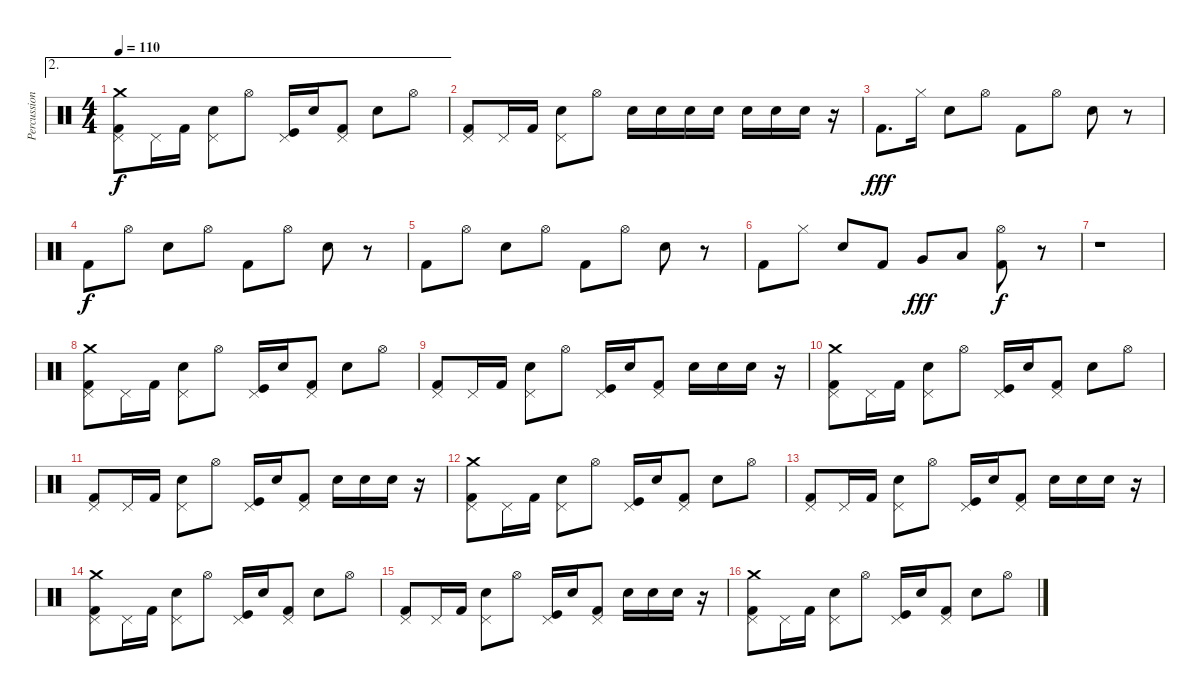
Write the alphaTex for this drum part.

\track ("Percussions" "Percussion") {instrument percussion}
\staff {score}
\articulation defaults
\ae 2
\ts (4 4)
\tempo 110
\clef neutral
\ks c
("Kick (hit) 2" "Pedal Hi-Hat (hit)" "Crash medium (hit)").8{dy f} "Pedal Hi-Hat (hit)".16 "Kick (hit) 2".16 ("Electric Snare (hit)" "Pedal Hi-Hat (hit)").8 "Hi-Hat (open)".8 ("Kick (hit)" "Pedal Hi-Hat (hit)").16 "Electric Snare (hit)".16 ("Kick (hit) 2" "Pedal Hi-Hat (hit)").8 "Electric Snare (hit)".8 "Hi-Hat (open)".8 |
("Kick (hit) 2" "Pedal Hi-Hat (hit)").8 "Pedal Hi-Hat (hit)".16 "Kick (hit) 2".16 ("Electric Snare (hit)" "Pedal Hi-Hat (hit)").8 "Hi-Hat (open)".8 "Electric Snare (hit)".16 "Electric Snare (hit)".16 "Electric Snare (hit)".16 "Electric Snare (hit)".16 "Electric Snare (hit)".16 "Electric Snare (hit)".16 "Electric Snare (hit)".16 r.16 |
"Kick (hit) 2".8{d dy fff} "Hi-Hat (closed)".16 "Electric Snare (hit)".8 "Hi-Hat (open)".8 "Kick (hit) 2".8 "Hi-Hat (open)".8 "Electric Snare (hit)".8 r.8 |
"Kick (hit) 2".8{dy f} "Hi-Hat (open)".8 "Electric Snare (hit)".8 "Hi-Hat (open)".8 "Kick (hit) 2".8 "Hi-Hat (open)".8 "Electric Snare (hit)".8 r.8 |
"Kick (hit) 2".8 "Hi-Hat (open)".8 "Electric Snare (hit)".8 "Hi-Hat (open)".8 "Kick (hit) 2".8 "Hi-Hat (open)".8 "Electric Snare (hit)".8 r.8 |
"Kick (hit) 2".8 "Hi-Hat (closed)".8 "Electric Snare (hit)".8 "Kick (hit) 2".8 "Very Low Tom (hit)".8{dy fff} "Low Floor Tom (hit)".8 ("Kick (hit) 2" "Hi-Hat (open)").8{dy f} r.8 |
r.1 |
("Kick (hit) 2" "Pedal Hi-Hat (hit)" "Crash medium (hit)").8 "Pedal Hi-Hat (hit)".16 "Kick (hit) 2".16 ("Electric Snare (hit)" "Pedal Hi-Hat (hit)").8 "Hi-Hat (open)".8 ("Kick (hit)" "Pedal Hi-Hat (hit)").16 "Electric Snare (hit)".16 ("Kick (hit) 2" "Pedal Hi-Hat (hit)").8 "Electric Snare (hit)".8 "Hi-Hat (open)".8 |
("Kick (hit) 2" "Pedal Hi-Hat (hit)").8 "Pedal Hi-Hat (hit)".16 "Kick (hit) 2".16 ("Electric Snare (hit)" "Pedal Hi-Hat (hit)").8 "Hi-Hat (open)".8 ("Kick (hit)" "Pedal Hi-Hat (hit)").16 "Electric Snare (hit)".16 ("Kick (hit) 2" "Pedal Hi-Hat (hit)").8 "Electric Snare (hit)".16 "Electric Snare (hit)".16 "Electric Snare (hit)".16 r.16 |
("Kick (hit) 2" "Pedal Hi-Hat (hit)" "Crash medium (hit)").8 "Pedal Hi-Hat (hit)".16 "Kick (hit) 2".16 ("Electric Snare (hit)" "Pedal Hi-Hat (hit)").8 "Hi-Hat (open)".8 ("Kick (hit)" "Pedal Hi-Hat (hit)").16 "Electric Snare (hit)".16 ("Kick (hit) 2" "Pedal Hi-Hat (hit)").8 "Electric Snare (hit)".8 "Hi-Hat (open)".8 |
("Kick (hit) 2" "Pedal Hi-Hat (hit)").8 "Pedal Hi-Hat (hit)".16 "Kick (hit) 2".16 ("Electric Snare (hit)" "Pedal Hi-Hat (hit)").8 "Hi-Hat (open)".8 ("Kick (hit)" "Pedal Hi-Hat (hit)").16 "Electric Snare (hit)".16 ("Kick (hit) 2" "Pedal Hi-Hat (hit)").8 "Electric Snare (hit)".16 "Electric Snare (hit)".16 "Electric Snare (hit)".16 r.16 |
("Kick (hit) 2" "Pedal Hi-Hat (hit)" "Crash medium (hit)").8 "Pedal Hi-Hat (hit)".16 "Kick (hit) 2".16 ("Electric Snare (hit)" "Pedal Hi-Hat (hit)").8 "Hi-Hat (open)".8 ("Kick (hit)" "Pedal Hi-Hat (hit)").16 "Electric Snare (hit)".16 ("Kick (hit) 2" "Pedal Hi-Hat (hit)").8 "Electric Snare (hit)".8 "Hi-Hat (open)".8 |
("Kick (hit) 2" "Pedal Hi-Hat (hit)").8 "Pedal Hi-Hat (hit)".16 "Kick (hit) 2".16 ("Electric Snare (hit)" "Pedal Hi-Hat (hit)").8 "Hi-Hat (open)".8 ("Kick (hit)" "Pedal Hi-Hat (hit)").16 "Electric Snare (hit)".16 ("Kick (hit) 2" "Pedal Hi-Hat (hit)").8 "Electric Snare (hit)".16 "Electric Snare (hit)".16 "Electric Snare (hit)".16 r.16 |
("Kick (hit) 2" "Pedal Hi-Hat (hit)" "Crash medium (hit)").8 "Pedal Hi-Hat (hit)".16 "Kick (hit) 2".16 ("Electric Snare (hit)" "Pedal Hi-Hat (hit)").8 "Hi-Hat (open)".8 ("Kick (hit)" "Pedal Hi-Hat (hit)").16 "Electric Snare (hit)".16 ("Kick (hit) 2" "Pedal Hi-Hat (hit)").8 "Electric Snare (hit)".8 "Hi-Hat (open)".8 |
("Kick (hit) 2" "Pedal Hi-Hat (hit)").8 "Pedal Hi-Hat (hit)".16 "Kick (hit) 2".16 ("Electric Snare (hit)" "Pedal Hi-Hat (hit)").8 "Hi-Hat (open)".8 ("Kick (hit)" "Pedal Hi-Hat (hit)").16 "Electric Snare (hit)".16 ("Kick (hit) 2" "Pedal Hi-Hat (hit)").8 "Electric Snare (hit)".16 "Electric Snare (hit)".16 "Electric Snare (hit)".16 r.16 |
("Kick (hit) 2" "Pedal Hi-Hat (hit)" "Crash medium (hit)").8 "Pedal Hi-Hat (hit)".16 "Kick (hit) 2".16 ("Electric Snare (hit)" "Pedal Hi-Hat (hit)").8 "Hi-Hat (open)".8 ("Kick (hit)" "Pedal Hi-Hat (hit)").16 "Electric Snare (hit)".16 ("Kick (hit) 2" "Pedal Hi-Hat (hit)").8 "Electric Snare (hit)".8 "Hi-Hat (open)".8
